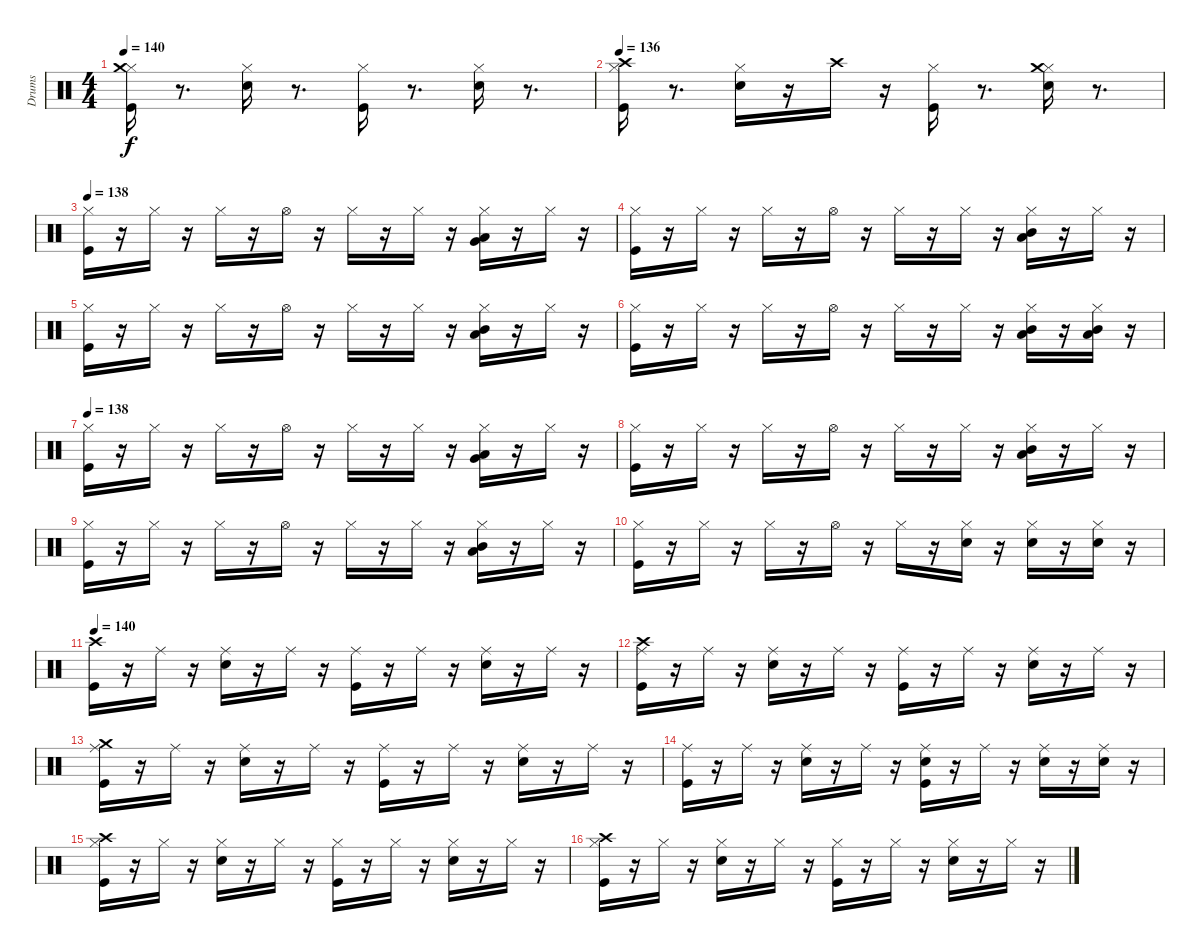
\track ("Drums" "Drums") {instrument percussion}
\staff {score}
\articulation defaults
\ts (4 4)
\tempo 140
\clef neutral
\ks c
("Hi-Hat (closed)" "Crash medium (hit)" "Kick (hit)").16{dy f} r.8{d} ("Hi-Hat (closed)" "Snare (hit) 2").16 r.8{d} ("Hi-Hat (closed)" "Kick (hit)").16 r.8{d} ("Hi-Hat (closed)" "Snare (hit) 2").16 r.8{d} |
\tempo 136
("Hi-Hat (closed)" "Crash high (hit)" "Kick (hit)").16 r.8{d} ("Hi-Hat (closed)" "Snare (hit) 2").16 r.16 "Crash high (hit)".16 r.16 ("Hi-Hat (closed)" "Kick (hit)").16 r.8{d} ("Hi-Hat (closed)" "Snare (hit) 2" "Crash medium (hit)").16 r.8{d} |
\tempo 138
("Hi-Hat (closed)" "Kick (hit)").16 r.16 "Hi-Hat (closed)".16 r.16 "Hi-Hat (closed)".16 r.16 "Hi-Hat (open)".16 r.16 "Hi-Hat (closed)".16 r.16 "Hi-Hat (closed)".16 r.16 ("Very Low Tom (hit)" "Low Tom (hit)" "Hi-Hat (closed)").16 r.16 "Hi-Hat (closed)".16 r.16 |
("Hi-Hat (closed)" "Kick (hit)").16 r.16 "Hi-Hat (closed)".16 r.16 "Hi-Hat (closed)".16 r.16 "Hi-Hat (open)".16 r.16 "Hi-Hat (closed)".16 r.16 "Hi-Hat (closed)".16 r.16 ("Mid Tom (hit)" "Low Tom (hit)" "Hi-Hat (closed)").16 r.16 "Hi-Hat (closed)".16 r.16 |
("Hi-Hat (closed)" "Kick (hit)").16 r.16 "Hi-Hat (closed)".16 r.16 "Hi-Hat (closed)".16 r.16 "Hi-Hat (open)".16 r.16 "Hi-Hat (closed)".16 r.16 "Hi-Hat (closed)".16 r.16 ("Low Tom (hit)" "Mid Tom (hit)" "Hi-Hat (closed)").16 r.16 "Hi-Hat (closed)".16 r.16 |
("Kick (hit)" "Hi-Hat (closed)").16 r.16 "Hi-Hat (closed)".16 r.16 "Hi-Hat (closed)".16 r.16 "Hi-Hat (open)".16 r.16 "Hi-Hat (closed)".16 r.16 "Hi-Hat (closed)".16 r.16 ("Mid Tom (hit)" "Low Tom (hit)" "Hi-Hat (closed)").16 r.16 ("Low Tom (hit)" "Mid Tom (hit)" "Hi-Hat (closed)").16 r.16 |
\tempo 138
("Kick (hit)" "Hi-Hat (closed)").16 r.16 "Hi-Hat (closed)".16 r.16 "Hi-Hat (closed)".16 r.16 "Hi-Hat (open)".16 r.16 "Hi-Hat (closed)".16 r.16 "Hi-Hat (closed)".16 r.16 ("Low Tom (hit)" "Very Low Tom (hit)" "Hi-Hat (closed)").16 r.16 "Hi-Hat (closed)".16 r.16 |
("Hi-Hat (closed)" "Kick (hit)").16 r.16 "Hi-Hat (closed)".16 r.16 "Hi-Hat (closed)".16 r.16 "Hi-Hat (open)".16 r.16 "Hi-Hat (closed)".16 r.16 "Hi-Hat (closed)".16 r.16 ("Low Tom (hit)" "Mid Tom (hit)" "Hi-Hat (closed)").16 r.16 "Hi-Hat (closed)".16 r.16 |
("Kick (hit)" "Hi-Hat (closed)").16 r.16 "Hi-Hat (closed)".16 r.16 "Hi-Hat (closed)".16 r.16 "Hi-Hat (open)".16 r.16 "Hi-Hat (closed)".16 r.16 "Hi-Hat (closed)".16 r.16 ("Mid Tom (hit)" "Low Tom (hit)" "Hi-Hat (closed)").16 r.16 "Hi-Hat (closed)".16 r.16 |
("Hi-Hat (closed)" "Kick (hit)").16 r.16 "Hi-Hat (closed)".16 r.16 "Hi-Hat (closed)".16 r.16 "Hi-Hat (open)".16 r.16 "Hi-Hat (closed)".16 r.16 ("Snare (hit) 2" "Hi-Hat (closed)").16 r.16 ("Snare (hit) 2" "Hi-Hat (closed)").16 r.16 ("Snare (hit) 2" "Hi-Hat (closed)").16 r.16 |
\tempo 140
("Crash high (hit)" "Kick (hit)").16 r.16 "Ride (middle)".16 r.16 ("Ride (middle)" "Snare (hit) 2").16 r.16 "Ride (middle)".16 r.16 ("Kick (hit)" "Ride (middle)").16 r.16 "Ride (middle)".16 r.16 ("Ride (middle)" "Snare (hit) 2").16 r.16 "Ride (middle)".16 r.16 |
("Crash high (hit)" "Kick (hit)" "Ride (middle)").16 r.16 "Ride (middle)".16 r.16 ("Snare (hit) 2" "Ride (middle)").16 r.16 "Ride (middle)".16 r.16 ("Kick (hit)" "Ride (middle)").16 r.16 "Ride (middle)".16 r.16 ("Snare (hit) 2" "Ride (middle)").16 r.16 "Ride (middle)".16 r.16 |
("Crash medium (hit)" "Kick (hit)" "Ride (middle)").16 r.16 "Ride (middle)".16 r.16 ("Snare (hit) 2" "Ride (middle)").16 r.16 "Ride (middle)".16 r.16 ("Kick (hit)" "Ride (middle)").16 r.16 "Ride (middle)".16 r.16 ("Snare (hit) 2" "Ride (middle)").16 r.16 "Ride (middle)".16 r.16 |
("Ride (middle)" "Kick (hit)").16 r.16 "Ride (middle)".16 r.16 ("Snare (hit) 2" "Ride (middle)").16 r.16 "Ride (middle)".16 r.16 ("Snare (hit) 2" "Kick (hit)" "Ride (middle)").16 r.16 "Ride (middle)".16 r.16 ("Ride (middle)" "Snare (hit) 2").16 r.16 ("Ride (middle)" "Snare (hit) 2").16 r.16 |
("Crash high (hit)" "Kick (hit)" "Hi-Hat (closed)").16 r.16 "Hi-Hat (closed)".16 r.16 ("Snare (hit) 2" "Hi-Hat (closed)").16 r.16 "Hi-Hat (closed)".16 r.16 ("Hi-Hat (closed)" "Kick (hit)").16 r.16 "Hi-Hat (closed)".16 r.16 ("Hi-Hat (closed)" "Snare (hit) 2").16 r.16 "Hi-Hat (closed)".16 r.16 |
("Hi-Hat (closed)" "Crash high (hit)" "Kick (hit)").16 r.16 "Hi-Hat (closed)".16 r.16 ("Snare (hit) 2" "Hi-Hat (closed)").16 r.16 "Hi-Hat (closed)".16 r.16 ("Kick (hit)" "Hi-Hat (closed)").16 r.16 "Hi-Hat (closed)".16 r.16 ("Snare (hit) 2" "Hi-Hat (closed)").16 r.16 "Hi-Hat (closed)".16 r.16
